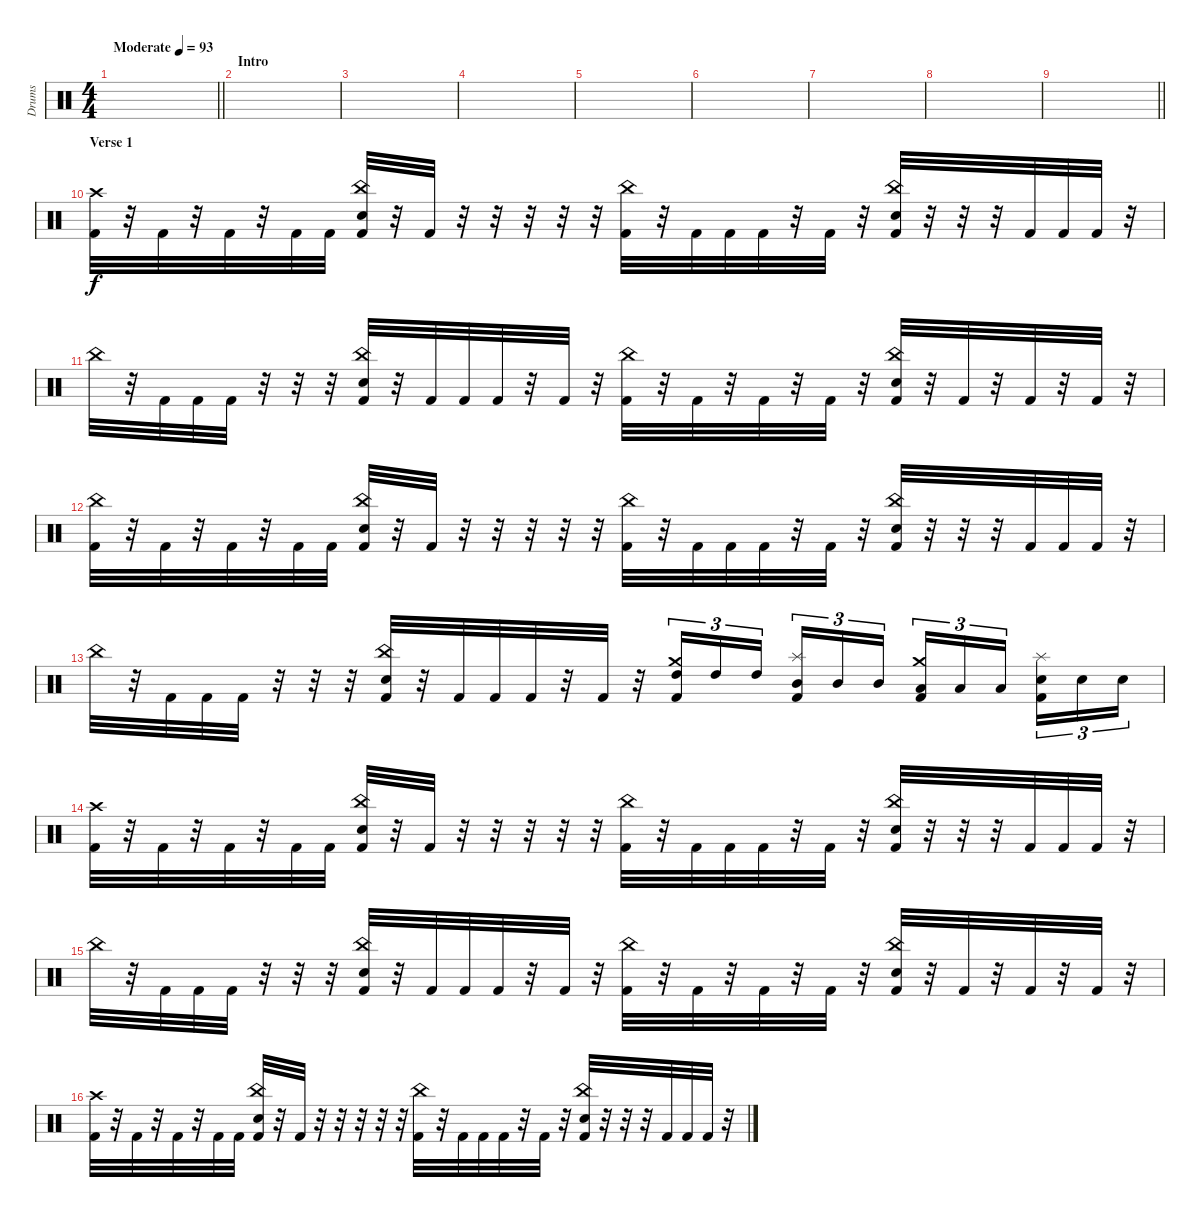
\track ("Drums" "Drums") {instrument percussion}
\staff {score}
\articulation defaults
\ts (4 4)
\tempo (93 "Moderate")
\clef neutral
\barLineRight lightlight
\ks c
|
\section ("" "Intro")
|
|
|
|
|
|
|
\barLineRight lightlight
|
\section ("" "Verse 1")
("Crash high (hit)" "Kick (hit) 2").32 r.32 "Kick (hit) 2".32 r.32 "Kick (hit) 2".32 r.32 "Kick (hit) 2".32 "Kick (hit) 2".32 ("China (hit)" "Snare (hit) 2" "Kick (hit) 2").32 r.32 "Kick (hit) 2".32 r.32 r.32 r.32 r.32 r.32 ("China (hit)" "Kick (hit) 2").32 r.32 "Kick (hit) 2".32 "Kick (hit) 2".32 "Kick (hit) 2".32 r.32 "Kick (hit) 2".32 r.32 ("China (hit)" "Snare (hit) 2" "Kick (hit) 2").32 r.32 r.32 r.32 "Kick (hit) 2".32 "Kick (hit) 2".32 "Kick (hit) 2".32 r.32 |
"China (hit)".32 r.32 "Kick (hit) 2".32 "Kick (hit) 2".32 "Kick (hit) 2".32 r.32 r.32 r.32 ("China (hit)" "Snare (hit) 2" "Kick (hit) 2").32 r.32 "Kick (hit) 2".32 "Kick (hit) 2".32 "Kick (hit) 2".32 r.32 "Kick (hit) 2".32 r.32 ("China (hit)" "Kick (hit) 2").32 r.32 "Kick (hit) 2".32 r.32 "Kick (hit) 2".32 r.32 "Kick (hit) 2".32 r.32 ("China (hit)" "Snare (hit) 2" "Kick (hit) 2").32 r.32 "Kick (hit) 2".32 r.32 "Kick (hit) 2".32 r.32 "Kick (hit) 2".32 r.32 |
("China (hit)" "Kick (hit) 2").32 r.32 "Kick (hit) 2".32 r.32 "Kick (hit) 2".32 r.32 "Kick (hit) 2".32 "Kick (hit) 2".32 ("China (hit)" "Snare (hit) 2" "Kick (hit) 2").32 r.32 "Kick (hit) 2".32 r.32 r.32 r.32 r.32 r.32 ("China (hit)" "Kick (hit) 2").32 r.32 "Kick (hit) 2".32 "Kick (hit) 2".32 "Kick (hit) 2".32 r.32 "Kick (hit) 2".32 r.32 ("China (hit)" "Snare (hit) 2" "Kick (hit) 2").32 r.32 r.32 r.32 "Kick (hit) 2".32 "Kick (hit) 2".32 "Kick (hit) 2".32 r.32 |
"China (hit)".32 r.32 "Kick (hit) 2".32 "Kick (hit) 2".32 "Kick (hit) 2".32 r.32 r.32 r.32 ("China (hit)" "Snare (hit) 2" "Kick (hit) 2").32 r.32 "Kick (hit) 2".32 "Kick (hit) 2".32 "Kick (hit) 2".32 r.32 "Kick (hit) 2".32 r.32 ("Crash medium (hit)" "High Tom (hit)" "Kick (hit) 2").16{tu (3 2)} "High Tom (hit)".16{tu (3 2)} "High Tom (hit)".16{tu (3 2) beam splitsecondary} ("Splash (hit)" "Mid Tom (hit)" "Kick (hit) 2").16{tu (3 2)} "Mid Tom (hit)".16{tu (3 2)} "Mid Tom (hit)".16{tu (3 2)} ("Crash medium (hit)" "Low Tom (hit)" "Kick (hit) 2").16{tu (3 2)} "Low Tom (hit)".16{tu (3 2)} "Low Tom (hit)".16{tu (3 2) beam splitsecondary} ("Splash (hit)" "Snare (hit) 2" "Kick (hit) 2").16{tu (3 2)} "Snare (hit) 2".16{tu (3 2)} "Snare (hit) 2".16{tu (3 2)} |
("Crash high (hit)" "Kick (hit) 2").32 r.32 "Kick (hit) 2".32 r.32 "Kick (hit) 2".32 r.32 "Kick (hit) 2".32 "Kick (hit) 2".32 ("China (hit)" "Snare (hit) 2" "Kick (hit) 2").32 r.32 "Kick (hit) 2".32 r.32 r.32 r.32 r.32 r.32 ("China (hit)" "Kick (hit) 2").32 r.32 "Kick (hit) 2".32 "Kick (hit) 2".32 "Kick (hit) 2".32 r.32 "Kick (hit) 2".32 r.32 ("China (hit)" "Snare (hit) 2" "Kick (hit) 2").32 r.32 r.32 r.32 "Kick (hit) 2".32 "Kick (hit) 2".32 "Kick (hit) 2".32 r.32 |
"China (hit)".32 r.32 "Kick (hit) 2".32 "Kick (hit) 2".32 "Kick (hit) 2".32 r.32 r.32 r.32 ("China (hit)" "Snare (hit) 2" "Kick (hit) 2").32 r.32 "Kick (hit) 2".32 "Kick (hit) 2".32 "Kick (hit) 2".32 r.32 "Kick (hit) 2".32 r.32 ("China (hit)" "Kick (hit) 2").32 r.32 "Kick (hit) 2".32 r.32 "Kick (hit) 2".32 r.32 "Kick (hit) 2".32 r.32 ("China (hit)" "Snare (hit) 2" "Kick (hit) 2").32 r.32 "Kick (hit) 2".32 r.32 "Kick (hit) 2".32 r.32 "Kick (hit) 2".32 r.32 |
("Crash high (hit)" "Kick (hit) 2").32 r.32 "Kick (hit) 2".32 r.32 "Kick (hit) 2".32 r.32 "Kick (hit) 2".32 "Kick (hit) 2".32 ("China (hit)" "Snare (hit) 2" "Kick (hit) 2").32 r.32 "Kick (hit) 2".32 r.32 r.32 r.32 r.32 r.32 ("China (hit)" "Kick (hit) 2").32 r.32 "Kick (hit) 2".32 "Kick (hit) 2".32 "Kick (hit) 2".32 r.32 "Kick (hit) 2".32 r.32 ("China (hit)" "Snare (hit) 2" "Kick (hit) 2").32 r.32 r.32 r.32 "Kick (hit) 2".32 "Kick (hit) 2".32 "Kick (hit) 2".32 r.32
